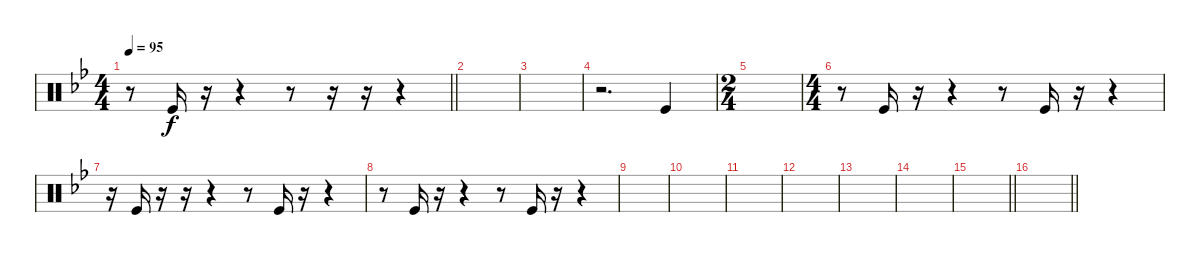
\track "" {instrument percussion}
\staff {score}
\articulation defaults
\ts (4 4)
\tempo 95
\clef neutral
\barLineRight lightlight
\ks bb
r.8{dy f} "Kick (hit)".16 r.16 r.4 r.8 r.16 r.16 r.4 |
|
|
r.2{d} "Kick (hit)".4 |
\ts (2 4)
|
\ts (4 4)
r.8 "Kick (hit)".16 r.16 r.4 r.8 "Kick (hit)".16 r.16 r.4 |
r.16 "Kick (hit)".16 r.16 r.16 r.4 r.8 "Kick (hit)".16 r.16 r.4 |
r.8 "Kick (hit)".16 r.16 r.4 r.8 "Kick (hit)".16 r.16 r.4 |
|
|
|
|
|
|
\barLineRight lightlight
|
\barLineRight lightlight
